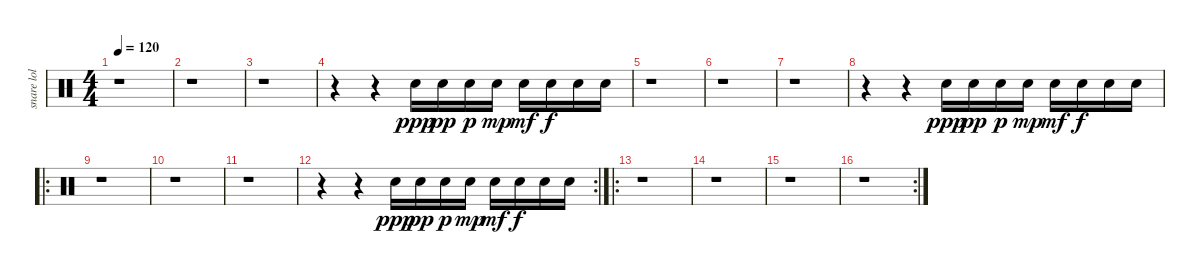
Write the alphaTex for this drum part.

\track ("snare lol lazy" "snare lol ") {instrument percussion}
\staff {score}
\articulation defaults
\ts (4 4)
\tempo 120
\clef neutral
\ks c
r.1{dy f} |
r.1 |
r.1 |
r.4 r.4 "Snare (hit) 2".16{dy ppp} "Snare (hit) 2".16{dy pp} "Snare (hit) 2".16{dy p} "Snare (hit) 2".16{dy mp} "Snare (hit) 2".16{dy mf} "Snare (hit) 2".16{dy f} "Snare (hit) 2".16 "Snare (hit) 2".16 |
r.1 |
r.1 |
r.1 |
r.4 r.4 "Snare (hit) 2".16{dy ppp} "Snare (hit) 2".16{dy pp} "Snare (hit) 2".16{dy p} "Snare (hit) 2".16{dy mp} "Snare (hit) 2".16{dy mf} "Snare (hit) 2".16{dy f} "Snare (hit) 2".16 "Snare (hit) 2".16 |
\ro
r.1 |
r.1 |
r.1 |
\rc 2
r.4 r.4 "Snare (hit) 2".16{dy ppp} "Snare (hit) 2".16{dy pp} "Snare (hit) 2".16{dy p} "Snare (hit) 2".16{dy mp} "Snare (hit) 2".16{dy mf} "Snare (hit) 2".16{dy f} "Snare (hit) 2".16 "Snare (hit) 2".16 |
\ro
r.1 |
r.1 |
r.1 |
\rc 2
r.1
